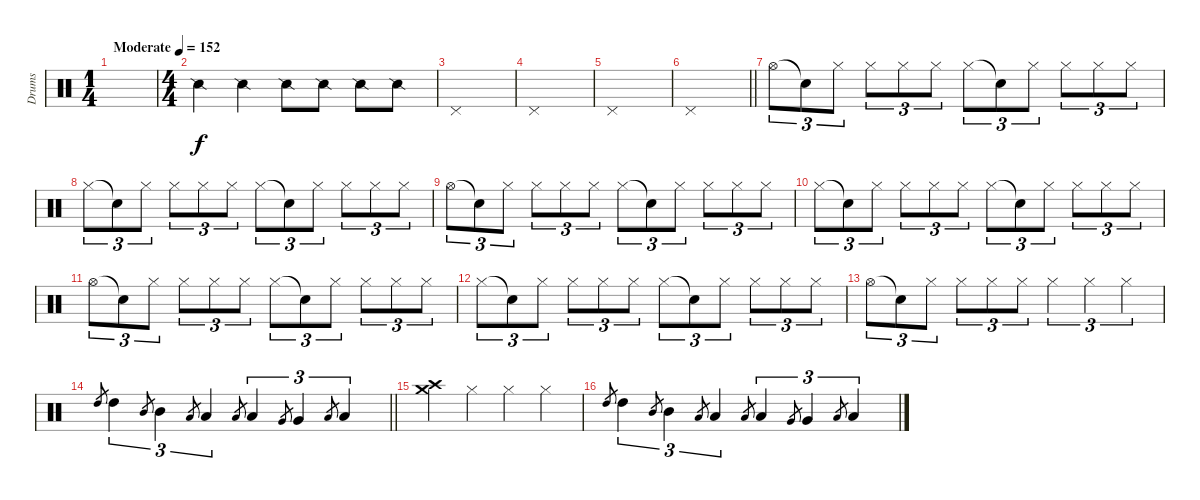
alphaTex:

\track ("Drums" "Drums") {instrument percussion}
\staff {score}
\articulation defaults
\ts (1 4)
\tempo (152 "Moderate")
\clef neutral
\ks c
|
\ts (4 4)
"Snare (side stick) 2".4 "Snare (side stick) 2".4 "Snare (side stick) 2".8 "Snare (side stick) 2".8 "Snare (side stick) 2".8 "Snare (side stick) 2".8 |
"Pedal Hi-Hat (hit)".1 |
"Pedal Hi-Hat (hit)".1 |
"Pedal Hi-Hat (hit)".1 |
\barLineRight lightlight "Pedal Hi-Hat (hit)".1
|
"Hi-Hat (open)".8{tu (3 2)} "Snare (hit)"{t}.8{tu (3 2)} "Hi-Hat (closed)".8{tu (3 2)} "Hi-Hat (closed)".8{tu (3 2)} "Hi-Hat (closed)".8{tu (3 2)} "Hi-Hat (closed)".8{tu (3 2)} "Hi-Hat (closed)".8{tu (3 2)} "Snare (hit)"{t}.8{tu (3 2)} "Hi-Hat (closed)".8{tu (3 2)} "Hi-Hat (closed)".8{tu (3 2)} "Hi-Hat (closed)".8{tu (3 2)} "Hi-Hat (closed)".8{tu (3 2)} |
"Hi-Hat (closed)".8{tu (3 2)} "Snare (hit)"{t}.8{tu (3 2)} "Hi-Hat (closed)".8{tu (3 2)} "Hi-Hat (closed)".8{tu (3 2)} "Hi-Hat (closed)".8{tu (3 2)} "Hi-Hat (closed)".8{tu (3 2)} "Hi-Hat (closed)".8{tu (3 2)} "Snare (hit)"{t}.8{tu (3 2)} "Hi-Hat (closed)".8{tu (3 2)} "Hi-Hat (closed)".8{tu (3 2)} "Hi-Hat (closed)".8{tu (3 2)} "Hi-Hat (closed)".8{tu (3 2)} |
"Hi-Hat (open)".8{tu (3 2)} "Snare (hit)"{t}.8{tu (3 2)} "Hi-Hat (closed)".8{tu (3 2)} "Hi-Hat (closed)".8{tu (3 2)} "Hi-Hat (closed)".8{tu (3 2)} "Hi-Hat (closed)".8{tu (3 2)} "Hi-Hat (closed)".8{tu (3 2)} "Snare (hit)"{t}.8{tu (3 2)} "Hi-Hat (closed)".8{tu (3 2)} "Hi-Hat (closed)".8{tu (3 2)} "Hi-Hat (closed)".8{tu (3 2)} "Hi-Hat (closed)".8{tu (3 2)} |
"Hi-Hat (closed)".8{tu (3 2)} "Snare (hit)"{t}.8{tu (3 2)} "Hi-Hat (closed)".8{tu (3 2)} "Hi-Hat (closed)".8{tu (3 2)} "Hi-Hat (closed)".8{tu (3 2)} "Hi-Hat (closed)".8{tu (3 2)} "Hi-Hat (closed)".8{tu (3 2)} "Snare (hit)"{t}.8{tu (3 2)} "Hi-Hat (closed)".8{tu (3 2)} "Hi-Hat (closed)".8{tu (3 2)} "Hi-Hat (closed)".8{tu (3 2)} "Hi-Hat (closed)".8{tu (3 2)} |
"Hi-Hat (open)".8{tu (3 2)} "Snare (hit)"{t}.8{tu (3 2)} "Hi-Hat (closed)".8{tu (3 2)} "Hi-Hat (closed)".8{tu (3 2)} "Hi-Hat (closed)".8{tu (3 2)} "Hi-Hat (closed)".8{tu (3 2)} "Hi-Hat (closed)".8{tu (3 2)} "Snare (hit)"{t}.8{tu (3 2)} "Hi-Hat (closed)".8{tu (3 2)} "Hi-Hat (closed)".8{tu (3 2)} "Hi-Hat (closed)".8{tu (3 2)} "Hi-Hat (closed)".8{tu (3 2)} |
"Hi-Hat (closed)".8{tu (3 2)} "Snare (hit)"{t}.8{tu (3 2)} "Hi-Hat (closed)".8{tu (3 2)} "Hi-Hat (closed)".8{tu (3 2)} "Hi-Hat (closed)".8{tu (3 2)} "Hi-Hat (closed)".8{tu (3 2)} "Hi-Hat (closed)".8{tu (3 2)} "Snare (hit)"{t}.8{tu (3 2)} "Hi-Hat (closed)".8{tu (3 2)} "Hi-Hat (closed)".8{tu (3 2)} "Hi-Hat (closed)".8{tu (3 2)} "Hi-Hat (closed)".8{tu (3 2)} |
"Hi-Hat (open)".8{tu (3 2)} "Snare (hit)"{t}.8{tu (3 2)} "Hi-Hat (closed)".8{tu (3 2)} "Hi-Hat (closed)".8{tu (3 2)} "Hi-Hat (closed)".8{tu (3 2)} "Hi-Hat (closed)".8{tu (3 2)} "Hi-Hat (closed)".4{tu (3 2)} "Hi-Hat (closed)".4{tu (3 2)} "Hi-Hat (closed)".4{tu (3 2)} |
\barLineRight lightlight "High Tom (hit)".8{gr} "High Tom (hit)".4{tu (3 2)} "Mid Tom (hit)".8{gr} "Mid Tom (hit)".4{tu (3 2)} "Low Tom (hit)".8{gr} "Low Tom (hit)".4{tu (3 2)} "Low Tom (hit)".8{gr} "Low Tom (hit)".4{tu (3 2)} "Very Low Tom (hit)".8{gr} "Very Low Tom (hit)".4{tu (3 2)} "Low Floor Tom (hit)".8{gr} "Low Floor Tom (hit)".4{tu (3 2)}
|
("Crash medium (hit)" "Crash high (hit)").4 "Hi-Hat (closed)".4 "Hi-Hat (closed)".4 "Hi-Hat (closed)".4 |
"High Tom (hit)".8{gr} "High Tom (hit)".4{tu (3 2)} "Mid Tom (hit)".8{gr} "Mid Tom (hit)".4{tu (3 2)} "Low Tom (hit)".8{gr} "Low Tom (hit)".4{tu (3 2)} "Low Tom (hit)".8{gr} "Low Tom (hit)".4{tu (3 2)} "Very Low Tom (hit)".8{gr} "Very Low Tom (hit)".4{tu (3 2)} "Low Floor Tom (hit)".8{gr} "Low Floor Tom (hit)".4{tu (3 2)}
